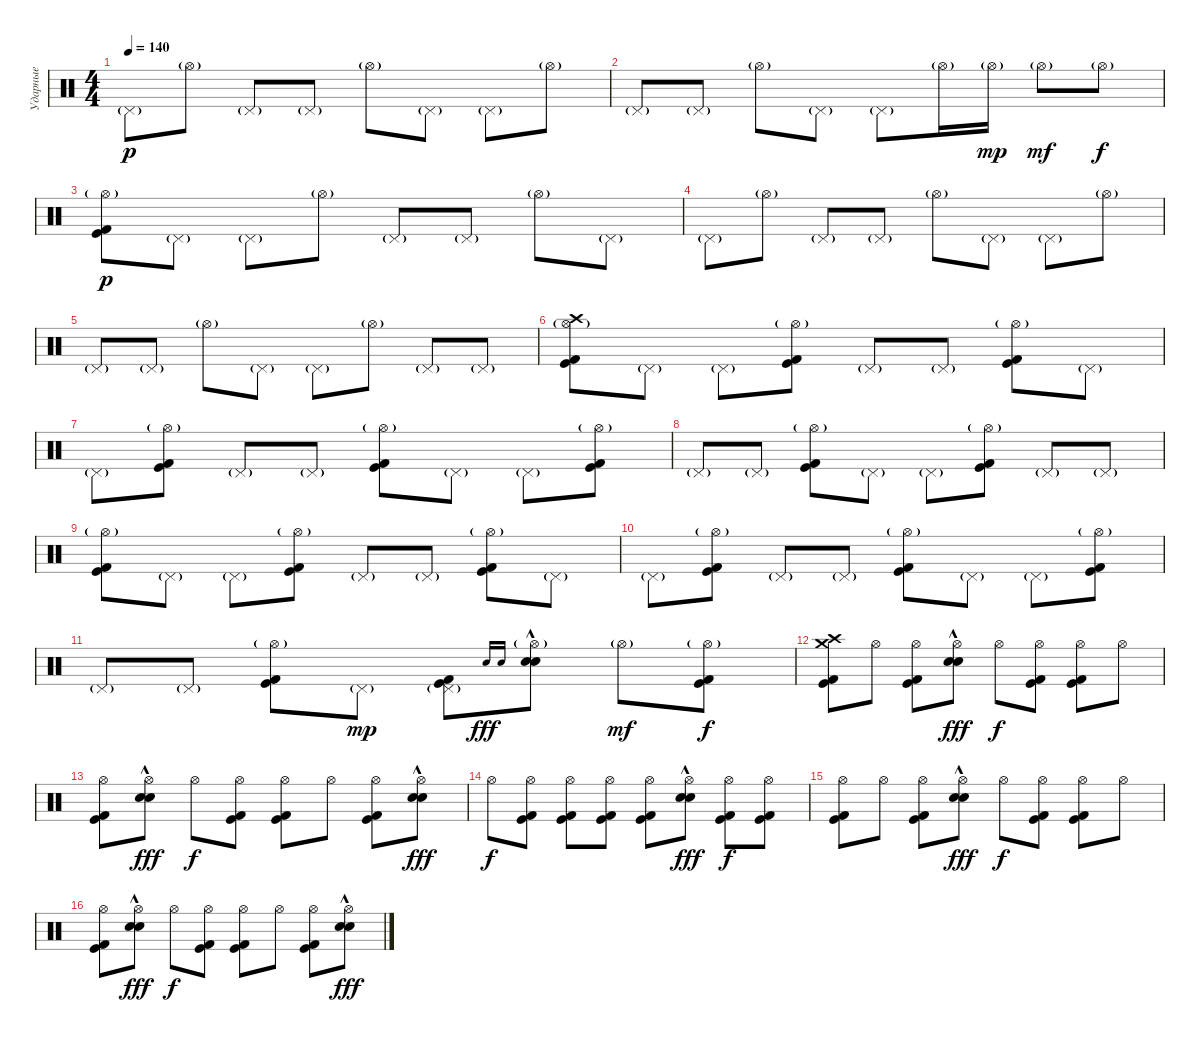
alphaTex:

\track ("Ударные" "Ударные") {instrument percussion}
\staff {score}
\articulation defaults
\ts (4 4)
\tempo 140
\clef neutral
\ks c "Pedal Hi-Hat (hit)"{g}.8{dy p} "Hi-Hat (open)"{g}.8 "Pedal Hi-Hat (hit)"{g}.8 "Pedal Hi-Hat (hit)"{g}.8 "Hi-Hat (open)"{g}.8 "Pedal Hi-Hat (hit)"{g}.8 "Pedal Hi-Hat (hit)"{g}.8 "Hi-Hat (open)"{g}.8
|
"Pedal Hi-Hat (hit)"{g}.8 "Pedal Hi-Hat (hit)"{g}.8 "Hi-Hat (open)"{g}.8 "Pedal Hi-Hat (hit)"{g}.8 "Pedal Hi-Hat (hit)"{g}.8 "Hi-Hat (open)"{g}.16 "Hi-Hat (open)"{g}.16{dy mp} "Hi-Hat (open)"{g}.8{dy mf} "Hi-Hat (open)"{g}.8{dy f} |
("Hi-Hat (open)"{g} "Kick (hit)" "Kick (hit) 2").8{dy p} "Pedal Hi-Hat (hit)"{g}.8 "Pedal Hi-Hat (hit)"{g}.8 "Hi-Hat (open)"{g}.8 "Pedal Hi-Hat (hit)"{g}.8 "Pedal Hi-Hat (hit)"{g}.8 "Hi-Hat (open)"{g}.8 "Pedal Hi-Hat (hit)"{g}.8 |
"Pedal Hi-Hat (hit)"{g}.8 "Hi-Hat (open)"{g}.8 "Pedal Hi-Hat (hit)"{g}.8 "Pedal Hi-Hat (hit)"{g}.8 "Hi-Hat (open)"{g}.8 "Pedal Hi-Hat (hit)"{g}.8 "Pedal Hi-Hat (hit)"{g}.8 "Hi-Hat (open)"{g}.8 |
"Pedal Hi-Hat (hit)"{g}.8 "Pedal Hi-Hat (hit)"{g}.8 "Hi-Hat (open)"{g}.8 "Pedal Hi-Hat (hit)"{g}.8 "Pedal Hi-Hat (hit)"{g}.8 "Hi-Hat (open)"{g}.8 "Pedal Hi-Hat (hit)"{g}.8 "Pedal Hi-Hat (hit)"{g}.8 |
("Hi-Hat (open)"{g} "Kick (hit)" "Kick (hit) 2" "Crash high (hit)").8 "Pedal Hi-Hat (hit)"{g}.8 "Pedal Hi-Hat (hit)"{g}.8 ("Hi-Hat (open)"{g} "Kick (hit)" "Kick (hit) 2").8 "Pedal Hi-Hat (hit)"{g}.8 "Pedal Hi-Hat (hit)"{g}.8 ("Hi-Hat (open)"{g} "Kick (hit)" "Kick (hit) 2").8 "Pedal Hi-Hat (hit)"{g}.8 |
"Pedal Hi-Hat (hit)"{g}.8 ("Hi-Hat (open)"{g} "Kick (hit)" "Kick (hit) 2").8 "Pedal Hi-Hat (hit)"{g}.8 "Pedal Hi-Hat (hit)"{g}.8 ("Hi-Hat (open)"{g} "Kick (hit)" "Kick (hit) 2").8 "Pedal Hi-Hat (hit)"{g}.8 "Pedal Hi-Hat (hit)"{g}.8 ("Hi-Hat (open)"{g} "Kick (hit)" "Kick (hit) 2").8 |
"Pedal Hi-Hat (hit)"{g}.8 "Pedal Hi-Hat (hit)"{g}.8 ("Hi-Hat (open)"{g} "Kick (hit)" "Kick (hit) 2").8 "Pedal Hi-Hat (hit)"{g}.8 "Pedal Hi-Hat (hit)"{g}.8 ("Hi-Hat (open)"{g} "Kick (hit)" "Kick (hit) 2").8 "Pedal Hi-Hat (hit)"{g}.8 "Pedal Hi-Hat (hit)"{g}.8 |
("Hi-Hat (open)"{g} "Kick (hit)" "Kick (hit) 2").8 "Pedal Hi-Hat (hit)"{g}.8 "Pedal Hi-Hat (hit)"{g}.8 ("Hi-Hat (open)"{g} "Kick (hit)" "Kick (hit) 2").8 "Pedal Hi-Hat (hit)"{g}.8 "Pedal Hi-Hat (hit)"{g}.8 ("Hi-Hat (open)"{g} "Kick (hit)" "Kick (hit) 2").8 "Pedal Hi-Hat (hit)"{g}.8 |
"Pedal Hi-Hat (hit)"{g}.8 ("Hi-Hat (open)"{g} "Kick (hit)" "Kick (hit) 2").8 "Pedal Hi-Hat (hit)"{g}.8 "Pedal Hi-Hat (hit)"{g}.8 ("Hi-Hat (open)"{g} "Kick (hit)" "Kick (hit) 2").8 "Pedal Hi-Hat (hit)"{g}.8 "Pedal Hi-Hat (hit)"{g}.8 ("Hi-Hat (open)"{g} "Kick (hit)" "Kick (hit) 2").8 |
"Pedal Hi-Hat (hit)"{g}.8 "Pedal Hi-Hat (hit)"{g}.8 ("Hi-Hat (open)"{g} "Kick (hit)" "Kick (hit) 2").8 "Pedal Hi-Hat (hit)"{g}.8{dy mp} ("Pedal Hi-Hat (hit)"{g} "Kick (hit)" "Kick (hit) 2").8 "Snare (hit) 2".16{gr onbeat dy fff} "Electric Snare (hit)".16{gr onbeat} ("Hi-Hat (open)"{g} "Snare (hit) 2"{hac} "Electric Snare (hit)"{hac}).8 "Hi-Hat (open)"{g}.8{dy mf} ("Hi-Hat (open)"{g} "Kick (hit)" "Kick (hit) 2").8{dy f} |
("Crash high (hit)" "Kick (hit)" "Kick (hit) 2" "Crash medium (hit)").8 "Hi-Hat (open)".8 ("Hi-Hat (open)" "Kick (hit)" "Kick (hit) 2").8 ("Hi-Hat (open)" "Snare (hit) 2"{hac} "Electric Snare (hit)"{hac}).8{dy fff} "Hi-Hat (open)".8{dy f} ("Hi-Hat (open)" "Kick (hit)" "Kick (hit) 2").8 ("Hi-Hat (open)" "Kick (hit)" "Kick (hit) 2").8 "Hi-Hat (open)".8 |
("Hi-Hat (open)" "Kick (hit)" "Kick (hit) 2").8 ("Hi-Hat (open)" "Snare (hit) 2"{hac} "Electric Snare (hit)"{hac}).8{dy fff} "Hi-Hat (open)".8{dy f} ("Hi-Hat (open)" "Kick (hit)" "Kick (hit) 2").8 ("Hi-Hat (open)" "Kick (hit)" "Kick (hit) 2").8 "Hi-Hat (open)".8 ("Hi-Hat (open)" "Kick (hit)" "Kick (hit) 2").8 ("Hi-Hat (open)" "Snare (hit) 2"{hac} "Electric Snare (hit)"{hac}).8{dy fff} |
"Hi-Hat (open)".8{dy f} ("Hi-Hat (open)" "Kick (hit)" "Kick (hit) 2").8 ("Hi-Hat (open)" "Kick (hit)" "Kick (hit) 2").8 ("Hi-Hat (open)" "Kick (hit)" "Kick (hit) 2").8 ("Hi-Hat (open)" "Kick (hit)" "Kick (hit) 2").8 ("Hi-Hat (open)" "Snare (hit) 2"{hac} "Electric Snare (hit)"{hac}).8{dy fff} ("Hi-Hat (open)" "Kick (hit)" "Kick (hit) 2").8{dy f} ("Hi-Hat (open)" "Kick (hit)" "Kick (hit) 2").8 |
("Hi-Hat (open)" "Kick (hit)" "Kick (hit) 2").8 "Hi-Hat (open)".8 ("Hi-Hat (open)" "Kick (hit)" "Kick (hit) 2").8 ("Hi-Hat (open)" "Snare (hit) 2"{hac} "Electric Snare (hit)"{hac}).8{dy fff} "Hi-Hat (open)".8{dy f} ("Hi-Hat (open)" "Kick (hit)" "Kick (hit) 2").8 ("Hi-Hat (open)" "Kick (hit)" "Kick (hit) 2").8 "Hi-Hat (open)".8 |
("Hi-Hat (open)" "Kick (hit)" "Kick (hit) 2").8 ("Hi-Hat (open)" "Snare (hit) 2"{hac} "Electric Snare (hit)"{hac}).8{dy fff} "Hi-Hat (open)".8{dy f} ("Hi-Hat (open)" "Kick (hit)" "Kick (hit) 2").8 ("Hi-Hat (open)" "Kick (hit)" "Kick (hit) 2").8 "Hi-Hat (open)".8 ("Hi-Hat (open)" "Kick (hit)" "Kick (hit) 2").8 ("Hi-Hat (open)" "Snare (hit) 2"{hac} "Electric Snare (hit)"{hac}).8{dy fff}
